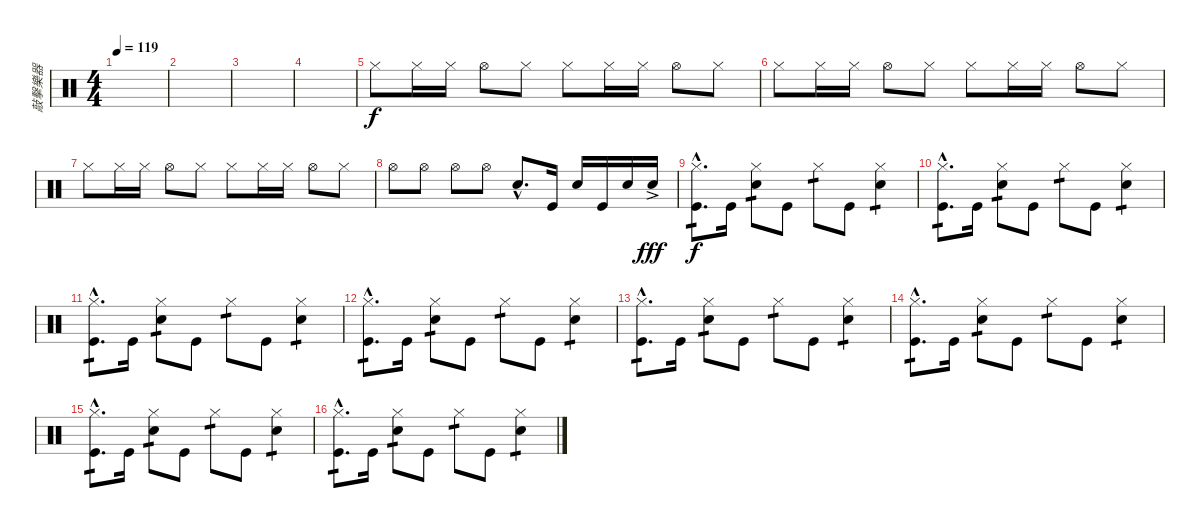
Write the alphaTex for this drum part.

\track ("敲擊樂器" "敲擊樂器") {instrument percussion}
\staff {score}
\articulation defaults
\ts (4 4)
\tempo 119
\clef neutral
\ks c
|
|
|
|
"Hi-Hat (closed)".8 "Hi-Hat (closed)".16 "Hi-Hat (closed)".16 "Hi-Hat (open)".8 "Hi-Hat (closed)".8 "Hi-Hat (closed)".8 "Hi-Hat (closed)".16 "Hi-Hat (closed)".16 "Hi-Hat (open)".8 "Hi-Hat (closed)".8 |
"Hi-Hat (closed)".8 "Hi-Hat (closed)".16 "Hi-Hat (closed)".16 "Hi-Hat (open)".8 "Hi-Hat (closed)".8 "Hi-Hat (closed)".8 "Hi-Hat (closed)".16 "Hi-Hat (closed)".16 "Hi-Hat (open)".8 "Hi-Hat (closed)".8 |
"Hi-Hat (closed)".8 "Hi-Hat (closed)".16 "Hi-Hat (closed)".16 "Hi-Hat (open)".8 "Hi-Hat (closed)".8 "Hi-Hat (closed)".8 "Hi-Hat (closed)".16 "Hi-Hat (closed)".16 "Hi-Hat (open)".8 "Hi-Hat (closed)".8 |
"Hi-Hat (open)".8 "Hi-Hat (open)".8 "Hi-Hat (open)".8 "Hi-Hat (open)".8 "Electric Snare (hit)"{hac}.8{d} "Kick (hit)".16 "Electric Snare (hit)".16 "Kick (hit)".16 "Electric Snare (hit)".16 "Electric Snare (hit)"{ac}.16{dy fff} |
("Hi-Hat (closed)"{hac} "Kick (hit)"{hac}).8{d tp 1 dy f} "Kick (hit)".16 ("Hi-Hat (closed)" "Electric Snare (hit)").8{tp 1} "Kick (hit)".8 "Hi-Hat (closed)".8{tp 1} "Kick (hit)".8 ("Hi-Hat (closed)" "Electric Snare (hit)").4{tp 1} |
("Hi-Hat (closed)"{hac} "Kick (hit)"{hac}).8{d tp 1} "Kick (hit)".16 ("Hi-Hat (closed)" "Electric Snare (hit)").8{tp 1} "Kick (hit)".8 "Hi-Hat (closed)".8{tp 1} "Kick (hit)".8 ("Hi-Hat (closed)" "Electric Snare (hit)").4{tp 1} |
("Hi-Hat (closed)"{hac} "Kick (hit)"{hac}).8{d tp 1} "Kick (hit)".16 ("Hi-Hat (closed)" "Electric Snare (hit)").8{tp 1} "Kick (hit)".8 "Hi-Hat (closed)".8{tp 1} "Kick (hit)".8 ("Hi-Hat (closed)" "Electric Snare (hit)").4{tp 1} |
("Hi-Hat (closed)"{hac} "Kick (hit)"{hac}).8{d tp 1} "Kick (hit)".16 ("Hi-Hat (closed)" "Electric Snare (hit)").8{tp 1} "Kick (hit)".8 "Hi-Hat (closed)".8{tp 1} "Kick (hit)".8 ("Hi-Hat (closed)" "Electric Snare (hit)").4{tp 1} |
("Hi-Hat (closed)"{hac} "Kick (hit)"{hac}).8{d tp 1} "Kick (hit)".16 ("Hi-Hat (closed)" "Electric Snare (hit)").8{tp 1} "Kick (hit)".8 "Hi-Hat (closed)".8{tp 1} "Kick (hit)".8 ("Hi-Hat (closed)" "Electric Snare (hit)").4{tp 1} |
("Hi-Hat (closed)"{hac} "Kick (hit)"{hac}).8{d tp 1} "Kick (hit)".16 ("Hi-Hat (closed)" "Electric Snare (hit)").8{tp 1} "Kick (hit)".8 "Hi-Hat (closed)".8{tp 1} "Kick (hit)".8 ("Hi-Hat (closed)" "Electric Snare (hit)").4{tp 1} |
("Hi-Hat (closed)"{hac} "Kick (hit)"{hac}).8{d tp 1} "Kick (hit)".16 ("Hi-Hat (closed)" "Electric Snare (hit)").8{tp 1} "Kick (hit)".8 "Hi-Hat (closed)".8{tp 1} "Kick (hit)".8 ("Hi-Hat (closed)" "Electric Snare (hit)").4{tp 1} |
("Hi-Hat (closed)"{hac} "Kick (hit)"{hac}).8{d tp 1} "Kick (hit)".16 ("Hi-Hat (closed)" "Electric Snare (hit)").8{tp 1} "Kick (hit)".8 "Hi-Hat (closed)".8{tp 1} "Kick (hit)".8 ("Hi-Hat (closed)" "Electric Snare (hit)").4{tp 1}
